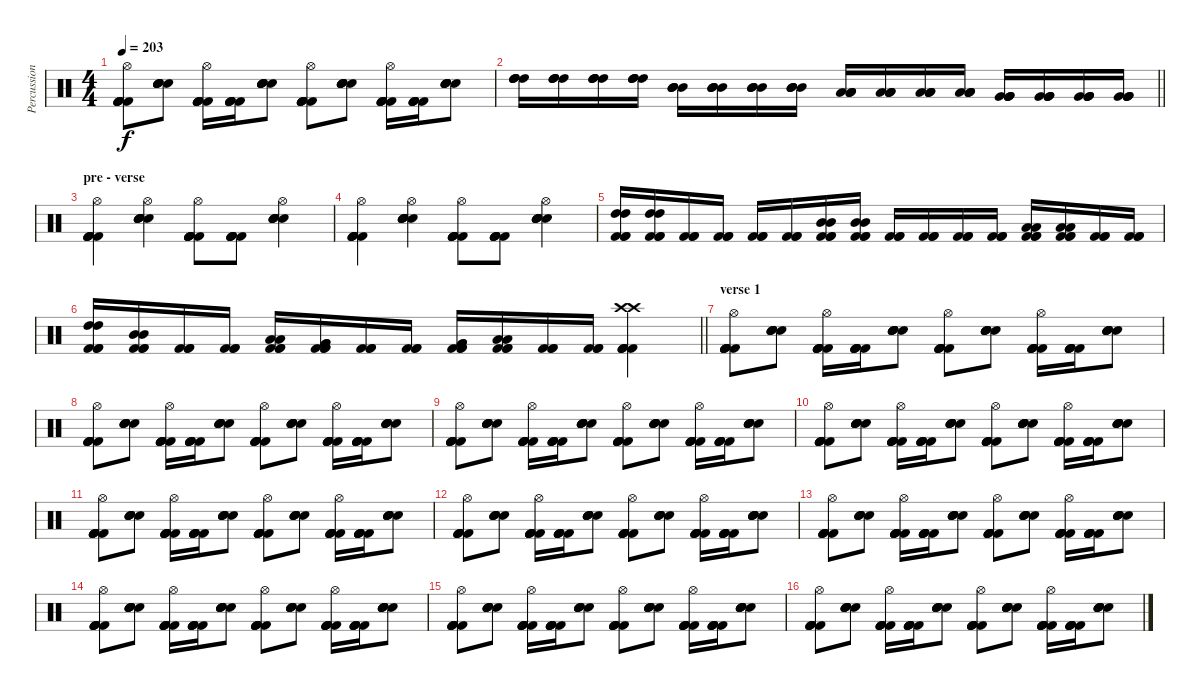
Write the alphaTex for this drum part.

\track ("Percussion" "Percussion") {instrument percussion}
\staff {score}
\articulation defaults
\ts (4 4)
\tempo 203
\clef neutral
\ks c
("Kick (hit) 2" "Kick (hit) 2" "Kick (hit) 2" "Kick (hit) 2" "Kick (hit) 2" "Hi-Hat (open)").8{dy f} ("Electric Snare (hit)" "Electric Snare (hit)" "Electric Snare (hit)" "Electric Snare (hit)" "Electric Snare (hit)").8 ("Kick (hit) 2" "Kick (hit) 2" "Kick (hit) 2" "Kick (hit) 2" "Kick (hit) 2" "Hi-Hat (open)").16 ("Kick (hit) 2" "Kick (hit) 2" "Kick (hit) 2" "Kick (hit) 2" "Kick (hit) 2").16 ("Electric Snare (hit)" "Electric Snare (hit)" "Electric Snare (hit)" "Electric Snare (hit)" "Electric Snare (hit)").8 ("Kick (hit) 2" "Kick (hit) 2" "Kick (hit) 2" "Kick (hit) 2" "Kick (hit) 2" "Hi-Hat (open)").8 ("Electric Snare (hit)" "Electric Snare (hit)" "Electric Snare (hit)" "Electric Snare (hit)" "Electric Snare (hit)").8 ("Kick (hit) 2" "Kick (hit) 2" "Kick (hit) 2" "Kick (hit) 2" "Kick (hit) 2" "Hi-Hat (open)").16 ("Kick (hit) 2" "Kick (hit) 2" "Kick (hit) 2" "Kick (hit) 2" "Kick (hit) 2").16 ("Electric Snare (hit)" "Electric Snare (hit)" "Electric Snare (hit)" "Electric Snare (hit)" "Electric Snare (hit)").8 |
\barLineRight lightlight
("High Tom (hit)" "High Tom (hit)" "High Tom (hit)" "High Tom (hit)").16 ("High Tom (hit)" "High Tom (hit)" "High Tom (hit)" "High Tom (hit)").16 ("High Tom (hit)" "High Tom (hit)" "High Tom (hit)" "High Tom (hit)").16 ("High Tom (hit)" "High Tom (hit)" "High Tom (hit)" "High Tom (hit)").16 ("Mid Tom (hit)" "Mid Tom (hit)" "Mid Tom (hit)" "Mid Tom (hit)").16 ("Mid Tom (hit)" "Mid Tom (hit)" "Mid Tom (hit)" "Mid Tom (hit)").16 ("Mid Tom (hit)" "Mid Tom (hit)" "Mid Tom (hit)" "Mid Tom (hit)").16 ("Mid Tom (hit)" "Mid Tom (hit)" "Mid Tom (hit)" "Mid Tom (hit)").16 ("Low Tom (hit)" "Low Tom (hit)" "Low Tom (hit)" "Low Tom (hit)").16 ("Low Tom (hit)" "Low Tom (hit)" "Low Tom (hit)" "Low Tom (hit)").16 ("Low Tom (hit)" "Low Tom (hit)" "Low Tom (hit)" "Low Tom (hit)").16 ("Low Tom (hit)" "Low Tom (hit)" "Low Tom (hit)" "Low Tom (hit)").16 ("Very Low Tom (hit)" "Very Low Tom (hit)" "Very Low Tom (hit)" "Very Low Tom (hit)").16 ("Very Low Tom (hit)" "Very Low Tom (hit)" "Very Low Tom (hit)" "Very Low Tom (hit)").16 ("Very Low Tom (hit)" "Very Low Tom (hit)" "Very Low Tom (hit)" "Very Low Tom (hit)").16 ("Very Low Tom (hit)" "Very Low Tom (hit)" "Very Low Tom (hit)" "Very Low Tom (hit)").16 |
\section ("" "pre - verse")
("Kick (hit) 2" "Kick (hit) 2" "Kick (hit) 2" "Kick (hit) 2" "Kick (hit) 2" "Hi-Hat (open)").4 ("Electric Snare (hit)" "Electric Snare (hit)" "Electric Snare (hit)" "Electric Snare (hit)" "Electric Snare (hit)" "Hi-Hat (open)").4 ("Kick (hit) 2" "Kick (hit) 2" "Kick (hit) 2" "Kick (hit) 2" "Kick (hit) 2" "Hi-Hat (open)").8 ("Kick (hit) 2" "Kick (hit) 2" "Kick (hit) 2" "Kick (hit) 2" "Kick (hit) 2").8 ("Electric Snare (hit)" "Electric Snare (hit)" "Electric Snare (hit)" "Electric Snare (hit)" "Electric Snare (hit)" "Hi-Hat (open)").4 |
("Kick (hit) 2" "Kick (hit) 2" "Kick (hit) 2" "Kick (hit) 2" "Kick (hit) 2" "Hi-Hat (open)").4 ("Electric Snare (hit)" "Electric Snare (hit)" "Electric Snare (hit)" "Electric Snare (hit)" "Electric Snare (hit)" "Hi-Hat (open)").4 ("Kick (hit) 2" "Kick (hit) 2" "Kick (hit) 2" "Kick (hit) 2" "Kick (hit) 2" "Hi-Hat (open)").8 ("Kick (hit) 2" "Kick (hit) 2" "Kick (hit) 2" "Kick (hit) 2" "Kick (hit) 2").8 ("Electric Snare (hit)" "Electric Snare (hit)" "Electric Snare (hit)" "Electric Snare (hit)" "Electric Snare (hit)" "Hi-Hat (open)").4 |
("Kick (hit) 2" "Kick (hit) 2" "Kick (hit) 2" "High Tom (hit)" "High Tom (hit)").16 ("Kick (hit) 2" "Kick (hit) 2" "Kick (hit) 2" "High Tom (hit)" "High Tom (hit)").16 ("Kick (hit) 2" "Kick (hit) 2" "Kick (hit) 2").16 ("Kick (hit) 2" "Kick (hit) 2" "Kick (hit) 2").16 ("Kick (hit) 2" "Kick (hit) 2" "Kick (hit) 2").16 ("Kick (hit) 2" "Kick (hit) 2" "Kick (hit) 2").16 ("Kick (hit) 2" "Kick (hit) 2" "Kick (hit) 2" "Mid Tom (hit)" "Mid Tom (hit)").16 ("Kick (hit) 2" "Kick (hit) 2" "Kick (hit) 2" "Mid Tom (hit)" "Mid Tom (hit)").16 ("Kick (hit) 2" "Kick (hit) 2" "Kick (hit) 2").16 ("Kick (hit) 2" "Kick (hit) 2" "Kick (hit) 2").16 ("Kick (hit) 2" "Kick (hit) 2" "Kick (hit) 2").16 ("Kick (hit) 2" "Kick (hit) 2" "Kick (hit) 2").16 ("Kick (hit) 2" "Kick (hit) 2" "Kick (hit) 2" "Low Tom (hit)" "Low Tom (hit)").16 ("Kick (hit) 2" "Kick (hit) 2" "Kick (hit) 2" "Low Tom (hit)" "Low Tom (hit)").16 ("Kick (hit) 2" "Kick (hit) 2" "Kick (hit) 2").16 ("Kick (hit) 2" "Kick (hit) 2" "Kick (hit) 2").16 |
\barLineRight lightlight
("Kick (hit) 2" "Kick (hit) 2" "Kick (hit) 2" "High Tom (hit)" "High Tom (hit)").16 ("Kick (hit) 2" "Kick (hit) 2" "Kick (hit) 2" "Mid Tom (hit)" "Mid Tom (hit)").16 ("Kick (hit) 2" "Kick (hit) 2" "Kick (hit) 2").16 ("Kick (hit) 2" "Kick (hit) 2" "Kick (hit) 2").16 ("Kick (hit) 2" "Kick (hit) 2" "Kick (hit) 2" "Low Tom (hit)" "Low Tom (hit)").16 ("Kick (hit) 2" "Kick (hit) 2" "Kick (hit) 2" "Very Low Tom (hit)" "Very Low Tom (hit)").16 ("Kick (hit) 2" "Kick (hit) 2" "Kick (hit) 2").16 ("Kick (hit) 2" "Kick (hit) 2" "Kick (hit) 2").16 ("Kick (hit) 2" "Kick (hit) 2" "Kick (hit) 2" "Very Low Tom (hit)" "Very Low Tom (hit)").16 ("Kick (hit) 2" "Kick (hit) 2" "Kick (hit) 2" "Low Floor Tom (hit)" "Low Floor Tom (hit)").16 ("Kick (hit) 2" "Kick (hit) 2" "Kick (hit) 2").16 ("Kick (hit) 2" "Kick (hit) 2" "Kick (hit) 2").16 ("Kick (hit) 2" "Kick (hit) 2" "Kick (hit) 2" "Kick (hit) 2" "Crash high (hit)" "Crash high (hit)").4 |
\section ("" "verse 1")
("Kick (hit) 2" "Kick (hit) 2" "Kick (hit) 2" "Kick (hit) 2" "Kick (hit) 2" "Hi-Hat (open)").8 ("Electric Snare (hit)" "Electric Snare (hit)" "Electric Snare (hit)" "Electric Snare (hit)" "Electric Snare (hit)").8 ("Kick (hit) 2" "Kick (hit) 2" "Kick (hit) 2" "Kick (hit) 2" "Kick (hit) 2" "Hi-Hat (open)").16 ("Kick (hit) 2" "Kick (hit) 2" "Kick (hit) 2" "Kick (hit) 2" "Kick (hit) 2").16 ("Electric Snare (hit)" "Electric Snare (hit)" "Electric Snare (hit)" "Electric Snare (hit)" "Electric Snare (hit)").8 ("Kick (hit) 2" "Kick (hit) 2" "Kick (hit) 2" "Kick (hit) 2" "Kick (hit) 2" "Hi-Hat (open)").8 ("Electric Snare (hit)" "Electric Snare (hit)" "Electric Snare (hit)" "Electric Snare (hit)" "Electric Snare (hit)").8 ("Kick (hit) 2" "Kick (hit) 2" "Kick (hit) 2" "Kick (hit) 2" "Kick (hit) 2" "Hi-Hat (open)").16 ("Kick (hit) 2" "Kick (hit) 2" "Kick (hit) 2" "Kick (hit) 2" "Kick (hit) 2").16 ("Electric Snare (hit)" "Electric Snare (hit)" "Electric Snare (hit)" "Electric Snare (hit)" "Electric Snare (hit)").8 |
("Kick (hit) 2" "Kick (hit) 2" "Kick (hit) 2" "Kick (hit) 2" "Kick (hit) 2" "Hi-Hat (open)").8 ("Electric Snare (hit)" "Electric Snare (hit)" "Electric Snare (hit)" "Electric Snare (hit)" "Electric Snare (hit)").8 ("Kick (hit) 2" "Kick (hit) 2" "Kick (hit) 2" "Kick (hit) 2" "Kick (hit) 2" "Hi-Hat (open)").16 ("Kick (hit) 2" "Kick (hit) 2" "Kick (hit) 2" "Kick (hit) 2" "Kick (hit) 2").16 ("Electric Snare (hit)" "Electric Snare (hit)" "Electric Snare (hit)" "Electric Snare (hit)" "Electric Snare (hit)").8 ("Kick (hit) 2" "Kick (hit) 2" "Kick (hit) 2" "Kick (hit) 2" "Kick (hit) 2" "Hi-Hat (open)").8 ("Electric Snare (hit)" "Electric Snare (hit)" "Electric Snare (hit)" "Electric Snare (hit)" "Electric Snare (hit)").8 ("Kick (hit) 2" "Kick (hit) 2" "Kick (hit) 2" "Kick (hit) 2" "Kick (hit) 2" "Hi-Hat (open)").16 ("Kick (hit) 2" "Kick (hit) 2" "Kick (hit) 2" "Kick (hit) 2" "Kick (hit) 2").16 ("Electric Snare (hit)" "Electric Snare (hit)" "Electric Snare (hit)" "Electric Snare (hit)" "Electric Snare (hit)").8 |
("Kick (hit) 2" "Kick (hit) 2" "Kick (hit) 2" "Kick (hit) 2" "Kick (hit) 2" "Hi-Hat (open)").8 ("Electric Snare (hit)" "Electric Snare (hit)" "Electric Snare (hit)" "Electric Snare (hit)" "Electric Snare (hit)").8 ("Kick (hit) 2" "Kick (hit) 2" "Kick (hit) 2" "Kick (hit) 2" "Kick (hit) 2" "Hi-Hat (open)").16 ("Kick (hit) 2" "Kick (hit) 2" "Kick (hit) 2" "Kick (hit) 2" "Kick (hit) 2").16 ("Electric Snare (hit)" "Electric Snare (hit)" "Electric Snare (hit)" "Electric Snare (hit)" "Electric Snare (hit)").8 ("Kick (hit) 2" "Kick (hit) 2" "Kick (hit) 2" "Kick (hit) 2" "Kick (hit) 2" "Hi-Hat (open)").8 ("Electric Snare (hit)" "Electric Snare (hit)" "Electric Snare (hit)" "Electric Snare (hit)" "Electric Snare (hit)").8 ("Kick (hit) 2" "Kick (hit) 2" "Kick (hit) 2" "Kick (hit) 2" "Kick (hit) 2" "Hi-Hat (open)").16 ("Kick (hit) 2" "Kick (hit) 2" "Kick (hit) 2" "Kick (hit) 2" "Kick (hit) 2").16 ("Electric Snare (hit)" "Electric Snare (hit)" "Electric Snare (hit)" "Electric Snare (hit)" "Electric Snare (hit)").8 |
("Kick (hit) 2" "Kick (hit) 2" "Kick (hit) 2" "Kick (hit) 2" "Kick (hit) 2" "Hi-Hat (open)").8 ("Electric Snare (hit)" "Electric Snare (hit)" "Electric Snare (hit)" "Electric Snare (hit)" "Electric Snare (hit)").8 ("Kick (hit) 2" "Kick (hit) 2" "Kick (hit) 2" "Kick (hit) 2" "Kick (hit) 2" "Hi-Hat (open)").16 ("Kick (hit) 2" "Kick (hit) 2" "Kick (hit) 2" "Kick (hit) 2" "Kick (hit) 2").16 ("Electric Snare (hit)" "Electric Snare (hit)" "Electric Snare (hit)" "Electric Snare (hit)" "Electric Snare (hit)").8 ("Kick (hit) 2" "Kick (hit) 2" "Kick (hit) 2" "Kick (hit) 2" "Kick (hit) 2" "Hi-Hat (open)").8 ("Electric Snare (hit)" "Electric Snare (hit)" "Electric Snare (hit)" "Electric Snare (hit)" "Electric Snare (hit)").8 ("Kick (hit) 2" "Kick (hit) 2" "Kick (hit) 2" "Kick (hit) 2" "Kick (hit) 2" "Hi-Hat (open)").16 ("Kick (hit) 2" "Kick (hit) 2" "Kick (hit) 2" "Kick (hit) 2" "Kick (hit) 2").16 ("Electric Snare (hit)" "Electric Snare (hit)" "Electric Snare (hit)" "Electric Snare (hit)" "Electric Snare (hit)").8 |
("Kick (hit) 2" "Kick (hit) 2" "Kick (hit) 2" "Kick (hit) 2" "Kick (hit) 2" "Hi-Hat (open)").8 ("Electric Snare (hit)" "Electric Snare (hit)" "Electric Snare (hit)" "Electric Snare (hit)" "Electric Snare (hit)").8 ("Kick (hit) 2" "Kick (hit) 2" "Kick (hit) 2" "Kick (hit) 2" "Kick (hit) 2" "Hi-Hat (open)").16 ("Kick (hit) 2" "Kick (hit) 2" "Kick (hit) 2" "Kick (hit) 2" "Kick (hit) 2").16 ("Electric Snare (hit)" "Electric Snare (hit)" "Electric Snare (hit)" "Electric Snare (hit)" "Electric Snare (hit)").8 ("Kick (hit) 2" "Kick (hit) 2" "Kick (hit) 2" "Kick (hit) 2" "Kick (hit) 2" "Hi-Hat (open)").8 ("Electric Snare (hit)" "Electric Snare (hit)" "Electric Snare (hit)" "Electric Snare (hit)" "Electric Snare (hit)").8 ("Kick (hit) 2" "Kick (hit) 2" "Kick (hit) 2" "Kick (hit) 2" "Kick (hit) 2" "Hi-Hat (open)").16 ("Kick (hit) 2" "Kick (hit) 2" "Kick (hit) 2" "Kick (hit) 2" "Kick (hit) 2").16 ("Electric Snare (hit)" "Electric Snare (hit)" "Electric Snare (hit)" "Electric Snare (hit)" "Electric Snare (hit)").8 |
("Kick (hit) 2" "Kick (hit) 2" "Kick (hit) 2" "Kick (hit) 2" "Kick (hit) 2" "Hi-Hat (open)").8 ("Electric Snare (hit)" "Electric Snare (hit)" "Electric Snare (hit)" "Electric Snare (hit)" "Electric Snare (hit)").8 ("Kick (hit) 2" "Kick (hit) 2" "Kick (hit) 2" "Kick (hit) 2" "Kick (hit) 2" "Hi-Hat (open)").16 ("Kick (hit) 2" "Kick (hit) 2" "Kick (hit) 2" "Kick (hit) 2" "Kick (hit) 2").16 ("Electric Snare (hit)" "Electric Snare (hit)" "Electric Snare (hit)" "Electric Snare (hit)" "Electric Snare (hit)").8 ("Kick (hit) 2" "Kick (hit) 2" "Kick (hit) 2" "Kick (hit) 2" "Kick (hit) 2" "Hi-Hat (open)").8 ("Electric Snare (hit)" "Electric Snare (hit)" "Electric Snare (hit)" "Electric Snare (hit)" "Electric Snare (hit)").8 ("Kick (hit) 2" "Kick (hit) 2" "Kick (hit) 2" "Kick (hit) 2" "Kick (hit) 2" "Hi-Hat (open)").16 ("Kick (hit) 2" "Kick (hit) 2" "Kick (hit) 2" "Kick (hit) 2" "Kick (hit) 2").16 ("Electric Snare (hit)" "Electric Snare (hit)" "Electric Snare (hit)" "Electric Snare (hit)" "Electric Snare (hit)").8 |
("Kick (hit) 2" "Kick (hit) 2" "Kick (hit) 2" "Kick (hit) 2" "Kick (hit) 2" "Hi-Hat (open)").8 ("Electric Snare (hit)" "Electric Snare (hit)" "Electric Snare (hit)" "Electric Snare (hit)" "Electric Snare (hit)").8 ("Kick (hit) 2" "Kick (hit) 2" "Kick (hit) 2" "Kick (hit) 2" "Kick (hit) 2" "Hi-Hat (open)").16 ("Kick (hit) 2" "Kick (hit) 2" "Kick (hit) 2" "Kick (hit) 2" "Kick (hit) 2").16 ("Electric Snare (hit)" "Electric Snare (hit)" "Electric Snare (hit)" "Electric Snare (hit)" "Electric Snare (hit)").8 ("Kick (hit) 2" "Kick (hit) 2" "Kick (hit) 2" "Kick (hit) 2" "Kick (hit) 2" "Hi-Hat (open)").8 ("Electric Snare (hit)" "Electric Snare (hit)" "Electric Snare (hit)" "Electric Snare (hit)" "Electric Snare (hit)").8 ("Kick (hit) 2" "Kick (hit) 2" "Kick (hit) 2" "Kick (hit) 2" "Kick (hit) 2" "Hi-Hat (open)").16 ("Kick (hit) 2" "Kick (hit) 2" "Kick (hit) 2" "Kick (hit) 2" "Kick (hit) 2").16 ("Electric Snare (hit)" "Electric Snare (hit)" "Electric Snare (hit)" "Electric Snare (hit)" "Electric Snare (hit)").8 |
("Kick (hit) 2" "Kick (hit) 2" "Kick (hit) 2" "Kick (hit) 2" "Kick (hit) 2" "Hi-Hat (open)").8 ("Electric Snare (hit)" "Electric Snare (hit)" "Electric Snare (hit)" "Electric Snare (hit)" "Electric Snare (hit)").8 ("Kick (hit) 2" "Kick (hit) 2" "Kick (hit) 2" "Kick (hit) 2" "Kick (hit) 2" "Hi-Hat (open)").16 ("Kick (hit) 2" "Kick (hit) 2" "Kick (hit) 2" "Kick (hit) 2" "Kick (hit) 2").16 ("Electric Snare (hit)" "Electric Snare (hit)" "Electric Snare (hit)" "Electric Snare (hit)" "Electric Snare (hit)").8 ("Kick (hit) 2" "Kick (hit) 2" "Kick (hit) 2" "Kick (hit) 2" "Kick (hit) 2" "Hi-Hat (open)").8 ("Electric Snare (hit)" "Electric Snare (hit)" "Electric Snare (hit)" "Electric Snare (hit)" "Electric Snare (hit)").8 ("Kick (hit) 2" "Kick (hit) 2" "Kick (hit) 2" "Kick (hit) 2" "Kick (hit) 2" "Hi-Hat (open)").16 ("Kick (hit) 2" "Kick (hit) 2" "Kick (hit) 2" "Kick (hit) 2" "Kick (hit) 2").16 ("Electric Snare (hit)" "Electric Snare (hit)" "Electric Snare (hit)" "Electric Snare (hit)" "Electric Snare (hit)").8 |
("Kick (hit) 2" "Kick (hit) 2" "Kick (hit) 2" "Kick (hit) 2" "Kick (hit) 2" "Hi-Hat (open)").8 ("Electric Snare (hit)" "Electric Snare (hit)" "Electric Snare (hit)" "Electric Snare (hit)" "Electric Snare (hit)").8 ("Kick (hit) 2" "Kick (hit) 2" "Kick (hit) 2" "Kick (hit) 2" "Kick (hit) 2" "Hi-Hat (open)").16 ("Kick (hit) 2" "Kick (hit) 2" "Kick (hit) 2" "Kick (hit) 2" "Kick (hit) 2").16 ("Electric Snare (hit)" "Electric Snare (hit)" "Electric Snare (hit)" "Electric Snare (hit)" "Electric Snare (hit)").8 ("Kick (hit) 2" "Kick (hit) 2" "Kick (hit) 2" "Kick (hit) 2" "Kick (hit) 2" "Hi-Hat (open)").8 ("Electric Snare (hit)" "Electric Snare (hit)" "Electric Snare (hit)" "Electric Snare (hit)" "Electric Snare (hit)").8 ("Kick (hit) 2" "Kick (hit) 2" "Kick (hit) 2" "Kick (hit) 2" "Kick (hit) 2" "Hi-Hat (open)").16 ("Kick (hit) 2" "Kick (hit) 2" "Kick (hit) 2" "Kick (hit) 2" "Kick (hit) 2").16 ("Electric Snare (hit)" "Electric Snare (hit)" "Electric Snare (hit)" "Electric Snare (hit)" "Electric Snare (hit)").8 |
("Kick (hit) 2" "Kick (hit) 2" "Kick (hit) 2" "Kick (hit) 2" "Kick (hit) 2" "Hi-Hat (open)").8 ("Electric Snare (hit)" "Electric Snare (hit)" "Electric Snare (hit)" "Electric Snare (hit)" "Electric Snare (hit)").8 ("Kick (hit) 2" "Kick (hit) 2" "Kick (hit) 2" "Kick (hit) 2" "Kick (hit) 2" "Hi-Hat (open)").16 ("Kick (hit) 2" "Kick (hit) 2" "Kick (hit) 2" "Kick (hit) 2" "Kick (hit) 2").16 ("Electric Snare (hit)" "Electric Snare (hit)" "Electric Snare (hit)" "Electric Snare (hit)" "Electric Snare (hit)").8 ("Kick (hit) 2" "Kick (hit) 2" "Kick (hit) 2" "Kick (hit) 2" "Kick (hit) 2" "Hi-Hat (open)").8 ("Electric Snare (hit)" "Electric Snare (hit)" "Electric Snare (hit)" "Electric Snare (hit)" "Electric Snare (hit)").8 ("Kick (hit) 2" "Kick (hit) 2" "Kick (hit) 2" "Kick (hit) 2" "Kick (hit) 2" "Hi-Hat (open)").16 ("Kick (hit) 2" "Kick (hit) 2" "Kick (hit) 2" "Kick (hit) 2" "Kick (hit) 2").16 ("Electric Snare (hit)" "Electric Snare (hit)" "Electric Snare (hit)" "Electric Snare (hit)" "Electric Snare (hit)").8
